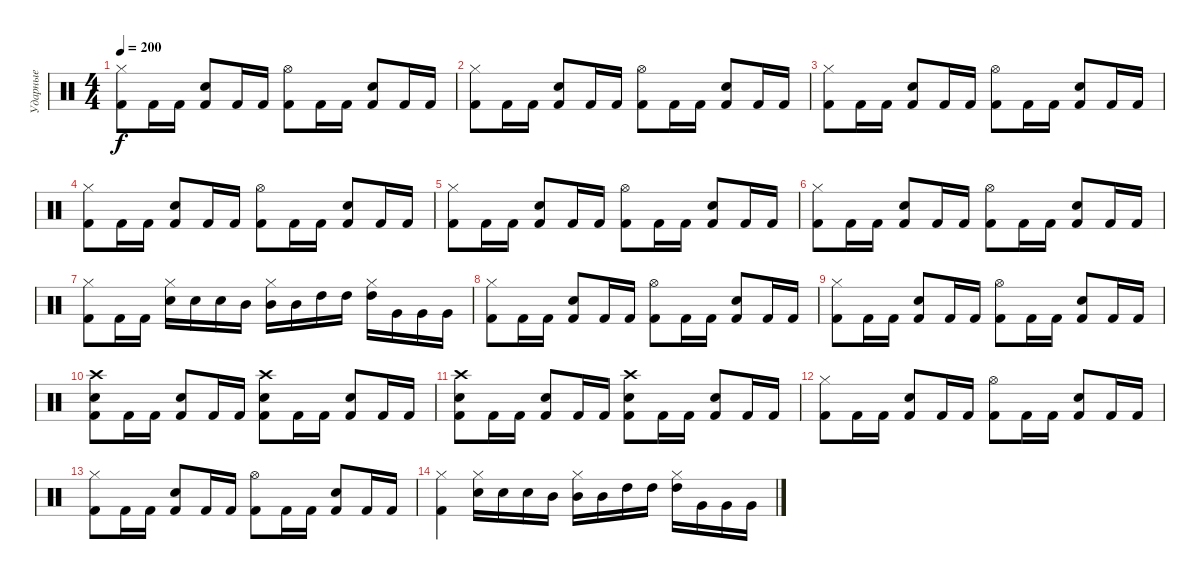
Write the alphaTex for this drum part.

\track ("Ударные" "Ударные") {instrument percussion}
\staff {score}
\articulation defaults
\ts (4 4)
\tempo 200
\clef neutral
\ks c
("Kick (hit) 2" "Hi-Hat (closed)").8{dy f} "Kick (hit) 2".16 "Kick (hit) 2".16 ("Kick (hit) 2" "Snare (hit) 2").8 "Kick (hit) 2".16 "Kick (hit) 2".16 ("Kick (hit) 2" "Hi-Hat (open)").8 "Kick (hit) 2".16 "Kick (hit) 2".16 ("Kick (hit) 2" "Snare (hit) 2").8 "Kick (hit) 2".16 "Kick (hit) 2".16 |
("Kick (hit) 2" "Hi-Hat (closed)").8 "Kick (hit) 2".16 "Kick (hit) 2".16 ("Kick (hit) 2" "Snare (hit) 2").8 "Kick (hit) 2".16 "Kick (hit) 2".16 ("Kick (hit) 2" "Hi-Hat (open)").8 "Kick (hit) 2".16 "Kick (hit) 2".16 ("Kick (hit) 2" "Snare (hit) 2").8 "Kick (hit) 2".16 "Kick (hit) 2".16 |
("Kick (hit) 2" "Hi-Hat (closed)").8 "Kick (hit) 2".16 "Kick (hit) 2".16 ("Kick (hit) 2" "Snare (hit) 2").8 "Kick (hit) 2".16 "Kick (hit) 2".16 ("Kick (hit) 2" "Hi-Hat (open)").8 "Kick (hit) 2".16 "Kick (hit) 2".16 ("Kick (hit) 2" "Snare (hit) 2").8 "Kick (hit) 2".16 "Kick (hit) 2".16 |
("Kick (hit) 2" "Hi-Hat (closed)").8 "Kick (hit) 2".16 "Kick (hit) 2".16 ("Kick (hit) 2" "Snare (hit) 2").8 "Kick (hit) 2".16 "Kick (hit) 2".16 ("Kick (hit) 2" "Hi-Hat (open)").8 "Kick (hit) 2".16 "Kick (hit) 2".16 ("Kick (hit) 2" "Snare (hit) 2").8 "Kick (hit) 2".16 "Kick (hit) 2".16 |
("Kick (hit) 2" "Hi-Hat (closed)").8 "Kick (hit) 2".16 "Kick (hit) 2".16 ("Kick (hit) 2" "Snare (hit) 2").8 "Kick (hit) 2".16 "Kick (hit) 2".16 ("Kick (hit) 2" "Hi-Hat (open)").8 "Kick (hit) 2".16 "Kick (hit) 2".16 ("Kick (hit) 2" "Snare (hit) 2").8 "Kick (hit) 2".16 "Kick (hit) 2".16 |
("Kick (hit) 2" "Hi-Hat (closed)").8 "Kick (hit) 2".16 "Kick (hit) 2".16 ("Kick (hit) 2" "Snare (hit) 2").8 "Kick (hit) 2".16 "Kick (hit) 2".16 ("Kick (hit) 2" "Hi-Hat (open)").8 "Kick (hit) 2".16 "Kick (hit) 2".16 ("Kick (hit) 2" "Snare (hit) 2").8 "Kick (hit) 2".16 "Kick (hit) 2".16 |
("Kick (hit) 2" "Hi-Hat (closed)").8 "Kick (hit) 2".16 "Kick (hit) 2".16 ("Electric Snare (hit)" "Hi-Hat (closed)").16 "Electric Snare (hit)".16 "Electric Snare (hit)".16 "Mid Tom (hit)".16 ("Mid Tom (hit)" "Hi-Hat (closed)").16 "Mid Tom (hit)".16 "High Tom (hit)".16 "High Tom (hit)".16 ("High Tom (hit)" "Hi-Hat (closed)").16 "Very Low Tom (hit)".16 "Very Low Tom (hit)".16 "Very Low Tom (hit)".16 |
("Kick (hit) 2" "Hi-Hat (closed)").8 "Kick (hit) 2".16 "Kick (hit) 2".16 ("Kick (hit) 2" "Snare (hit) 2").8 "Kick (hit) 2".16 "Kick (hit) 2".16 ("Kick (hit) 2" "Hi-Hat (open)").8 "Kick (hit) 2".16 "Kick (hit) 2".16 ("Kick (hit) 2" "Snare (hit) 2").8 "Kick (hit) 2".16 "Kick (hit) 2".16 |
("Kick (hit) 2" "Hi-Hat (closed)").8 "Kick (hit) 2".16 "Kick (hit) 2".16 ("Kick (hit) 2" "Snare (hit) 2").8 "Kick (hit) 2".16 "Kick (hit) 2".16 ("Kick (hit) 2" "Hi-Hat (open)").8 "Kick (hit) 2".16 "Kick (hit) 2".16 ("Kick (hit) 2" "Snare (hit) 2").8 "Kick (hit) 2".16 "Kick (hit) 2".16 |
("Kick (hit) 2" "Crash high (hit)" "Snare (hit) 2").8 "Kick (hit) 2".16 "Kick (hit) 2".16 ("Kick (hit) 2" "Snare (hit) 2").8 "Kick (hit) 2".16 "Kick (hit) 2".16 ("Kick (hit) 2" "Crash high (hit)" "Snare (hit) 2").8 "Kick (hit) 2".16 "Kick (hit) 2".16 ("Kick (hit) 2" "Snare (hit) 2").8 "Kick (hit) 2".16 "Kick (hit) 2".16 |
("Kick (hit) 2" "Crash high (hit)" "Snare (hit) 2").8 "Kick (hit) 2".16 "Kick (hit) 2".16 ("Kick (hit) 2" "Snare (hit) 2").8 "Kick (hit) 2".16 "Kick (hit) 2".16 ("Kick (hit) 2" "Crash high (hit)" "Snare (hit) 2").8 "Kick (hit) 2".16 "Kick (hit) 2".16 ("Kick (hit) 2" "Snare (hit) 2").8 "Kick (hit) 2".16 "Kick (hit) 2".16 |
("Kick (hit) 2" "Hi-Hat (closed)").8 "Kick (hit) 2".16 "Kick (hit) 2".16 ("Kick (hit) 2" "Snare (hit) 2").8 "Kick (hit) 2".16 "Kick (hit) 2".16 ("Kick (hit) 2" "Hi-Hat (open)").8 "Kick (hit) 2".16 "Kick (hit) 2".16 ("Kick (hit) 2" "Snare (hit) 2").8 "Kick (hit) 2".16 "Kick (hit) 2".16 |
("Kick (hit) 2" "Hi-Hat (closed)").8 "Kick (hit) 2".16 "Kick (hit) 2".16 ("Kick (hit) 2" "Snare (hit) 2").8 "Kick (hit) 2".16 "Kick (hit) 2".16 ("Kick (hit) 2" "Hi-Hat (open)").8 "Kick (hit) 2".16 "Kick (hit) 2".16 ("Kick (hit) 2" "Snare (hit) 2").8 "Kick (hit) 2".16 "Kick (hit) 2".16 |
("Kick (hit) 2" "Hi-Hat (closed)").4 ("Electric Snare (hit)" "Hi-Hat (closed)").16 "Electric Snare (hit)".16 "Electric Snare (hit)".16 "Mid Tom (hit)".16 ("Mid Tom (hit)" "Hi-Hat (closed)").16 "Mid Tom (hit)".16 "High Tom (hit)".16 "High Tom (hit)".16 ("High Tom (hit)" "Hi-Hat (closed)").16 "Very Low Tom (hit)".16 "Very Low Tom (hit)".16 "Very Low Tom (hit)".16
